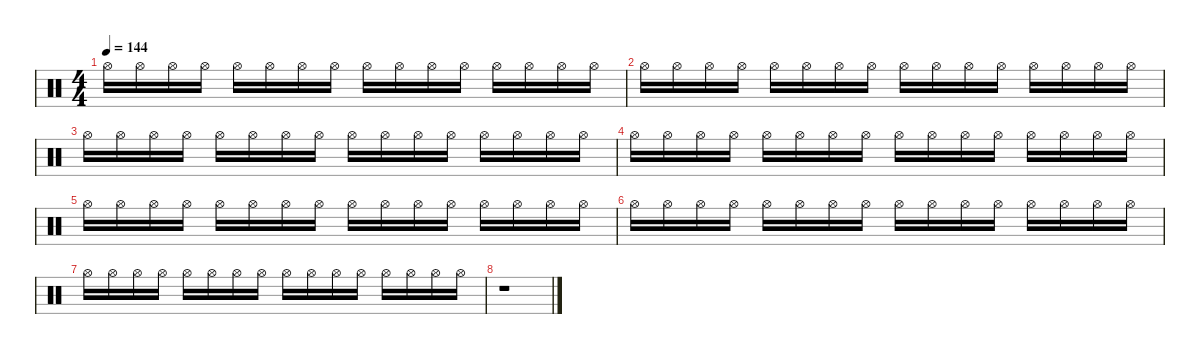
\defaultSystemsLayout 4
\hideDynamics
\bracketExtendMode nobrackets
\singleTrackTrackNamePolicy hidden
\multiTrackTrackNamePolicy hidden
\firstSystemTrackNameMode fullname
\firstSystemTrackNameOrientation horizontal
\otherSystemsTrackNameOrientation horizontal
\track ("Percussion" "drm.") {instrument percussion}
\staff {score}
\articulation defaults
\ts (4 4)
\tempo 144
\clef neutral
\ks c "Hi-Hat (open)".16{dy f beam Down} "Hi-Hat (open)".16{beam Down} "Hi-Hat (open)".16{beam Down} "Hi-Hat (open)".16{beam Down} "Hi-Hat (open)".16{beam Down} "Hi-Hat (open)".16{beam Down} "Hi-Hat (open)".16{beam Down} "Hi-Hat (open)".16{beam Down} "Hi-Hat (open)".16{beam Down} "Hi-Hat (open)".16{beam Down} "Hi-Hat (open)".16{beam Down} "Hi-Hat (open)".16{beam Down} "Hi-Hat (open)".16{beam Down} "Hi-Hat (open)".16{beam Down} "Hi-Hat (open)".16{beam Down} "Hi-Hat (open)".16{beam Down}
|
"Hi-Hat (open)".16{beam Down} "Hi-Hat (open)".16{beam Down} "Hi-Hat (open)".16{beam Down} "Hi-Hat (open)".16{beam Down} "Hi-Hat (open)".16{beam Down} "Hi-Hat (open)".16{beam Down} "Hi-Hat (open)".16{beam Down} "Hi-Hat (open)".16{beam Down} "Hi-Hat (open)".16{beam Down} "Hi-Hat (open)".16{beam Down} "Hi-Hat (open)".16{beam Down} "Hi-Hat (open)".16{beam Down} "Hi-Hat (open)".16{beam Down} "Hi-Hat (open)".16{beam Down} "Hi-Hat (open)".16{beam Down} "Hi-Hat (open)".16{beam Down} |
"Hi-Hat (open)".16{beam Down} "Hi-Hat (open)".16{beam Down} "Hi-Hat (open)".16{beam Down} "Hi-Hat (open)".16{beam Down} "Hi-Hat (open)".16{beam Down} "Hi-Hat (open)".16{beam Down} "Hi-Hat (open)".16{beam Down} "Hi-Hat (open)".16{beam Down} "Hi-Hat (open)".16{beam Down} "Hi-Hat (open)".16{beam Down} "Hi-Hat (open)".16{beam Down} "Hi-Hat (open)".16{beam Down} "Hi-Hat (open)".16{beam Down} "Hi-Hat (open)".16{beam Down} "Hi-Hat (open)".16{beam Down} "Hi-Hat (open)".16{beam Down} |
"Hi-Hat (open)".16{beam Down} "Hi-Hat (open)".16{beam Down} "Hi-Hat (open)".16{beam Down} "Hi-Hat (open)".16{beam Down} "Hi-Hat (open)".16{beam Down} "Hi-Hat (open)".16{beam Down} "Hi-Hat (open)".16{beam Down} "Hi-Hat (open)".16{beam Down} "Hi-Hat (open)".16{beam Down} "Hi-Hat (open)".16{beam Down} "Hi-Hat (open)".16{beam Down} "Hi-Hat (open)".16{beam Down} "Hi-Hat (open)".16{beam Down} "Hi-Hat (open)".16{beam Down} "Hi-Hat (open)".16{beam Down} "Hi-Hat (open)".16{beam Down} |
"Hi-Hat (open)".16{beam Down} "Hi-Hat (open)".16{beam Down} "Hi-Hat (open)".16{beam Down} "Hi-Hat (open)".16{beam Down} "Hi-Hat (open)".16{beam Down} "Hi-Hat (open)".16{beam Down} "Hi-Hat (open)".16{beam Down} "Hi-Hat (open)".16{beam Down} "Hi-Hat (open)".16{beam Down} "Hi-Hat (open)".16{beam Down} "Hi-Hat (open)".16{beam Down} "Hi-Hat (open)".16{beam Down} "Hi-Hat (open)".16{beam Down} "Hi-Hat (open)".16{beam Down} "Hi-Hat (open)".16{beam Down} "Hi-Hat (open)".16{beam Down} |
"Hi-Hat (open)".16{beam Down} "Hi-Hat (open)".16{beam Down} "Hi-Hat (open)".16{beam Down} "Hi-Hat (open)".16{beam Down} "Hi-Hat (open)".16{beam Down} "Hi-Hat (open)".16{beam Down} "Hi-Hat (open)".16{beam Down} "Hi-Hat (open)".16{beam Down} "Hi-Hat (open)".16{beam Down} "Hi-Hat (open)".16{beam Down} "Hi-Hat (open)".16{beam Down} "Hi-Hat (open)".16{beam Down} "Hi-Hat (open)".16{beam Down} "Hi-Hat (open)".16{beam Down} "Hi-Hat (open)".16{beam Down} "Hi-Hat (open)".16{beam Down} |
"Hi-Hat (open)".16{beam Down} "Hi-Hat (open)".16{beam Down} "Hi-Hat (open)".16{beam Down} "Hi-Hat (open)".16{beam Down} "Hi-Hat (open)".16{beam Down} "Hi-Hat (open)".16{beam Down} "Hi-Hat (open)".16{beam Down} "Hi-Hat (open)".16{beam Down} "Hi-Hat (open)".16{beam Down} "Hi-Hat (open)".16{beam Down} "Hi-Hat (open)".16{beam Down} "Hi-Hat (open)".16{beam Down} "Hi-Hat (open)".16{beam Down} "Hi-Hat (open)".16{beam Down} "Hi-Hat (open)".16{beam Down} "Hi-Hat (open)".16{beam Down} |
r.1{beam Down}
